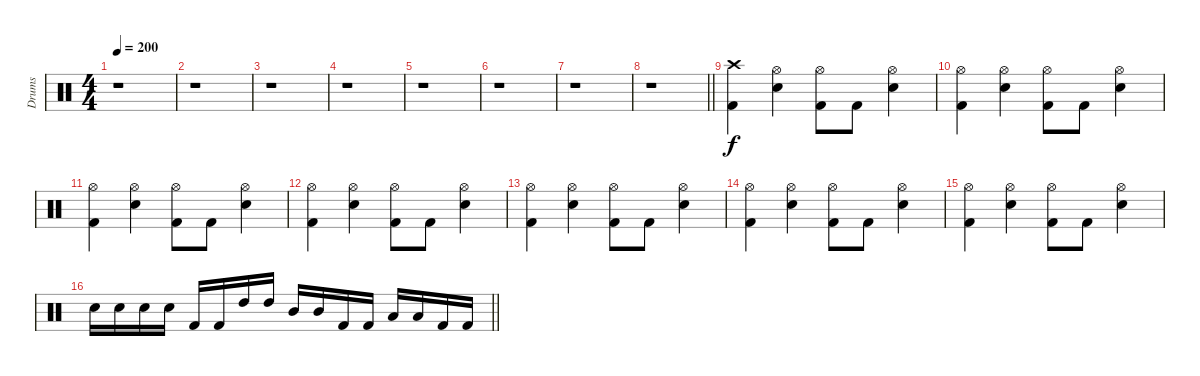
\track ("Drums" "Drums") {instrument percussion}
\staff {score}
\articulation defaults
\ts (4 4)
\section ("" "")
\tempo 200
\clef neutral
\ks c
r.1{dy f} |
r.1 |
r.1 |
r.1 |
r.1 |
r.1 |
r.1 |
\barLineRight lightlight
r.1 |
\section ("" "")
("Kick (hit) 2" "Crash high (hit)").4 ("Snare (hit) 2" "Hi-Hat (open)").4 ("Kick (hit) 2" "Hi-Hat (open)").8 "Kick (hit) 2".8 ("Snare (hit) 2" "Hi-Hat (open)").4 |
("Kick (hit) 2" "Hi-Hat (open)").4 ("Snare (hit) 2" "Hi-Hat (open)").4 ("Kick (hit) 2" "Hi-Hat (open)").8 "Kick (hit) 2".8 ("Snare (hit) 2" "Hi-Hat (open)").4 |
("Kick (hit) 2" "Hi-Hat (open)").4 ("Snare (hit) 2" "Hi-Hat (open)").4 ("Kick (hit) 2" "Hi-Hat (open)").8 "Kick (hit) 2".8 ("Snare (hit) 2" "Hi-Hat (open)").4 |
("Kick (hit) 2" "Hi-Hat (open)").4 ("Snare (hit) 2" "Hi-Hat (open)").4 ("Kick (hit) 2" "Hi-Hat (open)").8 "Kick (hit) 2".8 ("Snare (hit) 2" "Hi-Hat (open)").4 |
("Kick (hit) 2" "Hi-Hat (open)").4 ("Snare (hit) 2" "Hi-Hat (open)").4 ("Kick (hit) 2" "Hi-Hat (open)").8 "Kick (hit) 2".8 ("Snare (hit) 2" "Hi-Hat (open)").4 |
("Kick (hit) 2" "Hi-Hat (open)").4 ("Snare (hit) 2" "Hi-Hat (open)").4 ("Kick (hit) 2" "Hi-Hat (open)").8 "Kick (hit) 2".8 ("Snare (hit) 2" "Hi-Hat (open)").4 |
("Kick (hit) 2" "Hi-Hat (open)").4 ("Snare (hit) 2" "Hi-Hat (open)").4 ("Kick (hit) 2" "Hi-Hat (open)").8 "Kick (hit) 2".8 ("Snare (hit) 2" "Hi-Hat (open)").4 |
\barLineRight lightlight "Snare (hit) 2".16 "Snare (hit) 2".16 "Snare (hit) 2".16 "Snare (hit) 2".16 "Kick (hit) 2".16 "Kick (hit) 2".16 "High Tom (hit)".16 "High Tom (hit)".16 "Mid Tom (hit)".16 "Mid Tom (hit)".16 "Kick (hit) 2".16 "Kick (hit) 2".16 "Low Tom (hit)".16 "Low Tom (hit)".16 "Kick (hit) 2".16 "Kick (hit) 2".16
